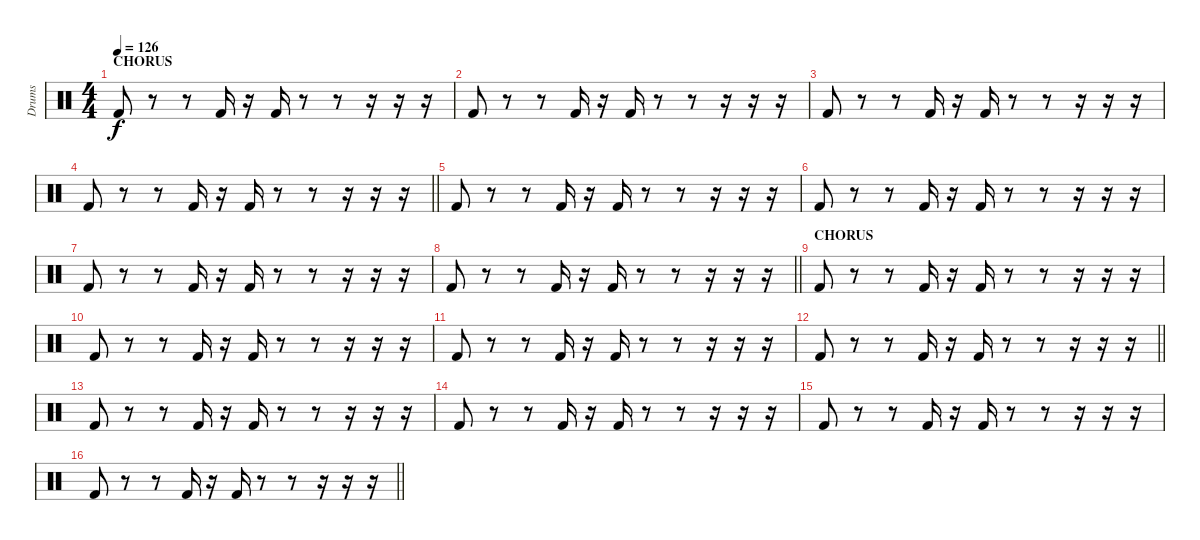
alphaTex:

\track ("Drums" "Drums") {instrument percussion}
\staff {score}
\articulation defaults
\ts (4 4)
\section ("" "CHORUS")
\tempo 126
\clef neutral
\ks c "Kick (hit) 2".8{dy f}
r.8 r.8 "Kick (hit) 2".16 r.16 "Kick (hit) 2".16 r.8 r.8 r.16 r.16 r.16 |
"Kick (hit) 2".8 r.8 r.8 "Kick (hit) 2".16 r.16 "Kick (hit) 2".16 r.8 r.8 r.16 r.16 r.16 |
"Kick (hit) 2".8 r.8 r.8 "Kick (hit) 2".16 r.16 "Kick (hit) 2".16 r.8 r.8 r.16 r.16 r.16 |
\barLineRight lightlight "Kick (hit) 2".8
r.8 r.8 "Kick (hit) 2".16 r.16 "Kick (hit) 2".16 r.8 r.8 r.16 r.16 r.16 |
"Kick (hit) 2".8 r.8 r.8 "Kick (hit) 2".16 r.16 "Kick (hit) 2".16 r.8 r.8 r.16 r.16 r.16 |
"Kick (hit) 2".8 r.8 r.8 "Kick (hit) 2".16 r.16 "Kick (hit) 2".16 r.8 r.8 r.16 r.16 r.16 |
"Kick (hit) 2".8 r.8 r.8 "Kick (hit) 2".16 r.16 "Kick (hit) 2".16 r.8 r.8 r.16 r.16 r.16 |
\barLineRight lightlight "Kick (hit) 2".8
r.8 r.8 "Kick (hit) 2".16 r.16 "Kick (hit) 2".16 r.8 r.8 r.16 r.16 r.16 |
\section ("" "CHORUS")
"Kick (hit) 2".8 r.8 r.8 "Kick (hit) 2".16 r.16 "Kick (hit) 2".16 r.8 r.8 r.16 r.16 r.16 |
"Kick (hit) 2".8 r.8 r.8 "Kick (hit) 2".16 r.16 "Kick (hit) 2".16 r.8 r.8 r.16 r.16 r.16 |
"Kick (hit) 2".8 r.8 r.8 "Kick (hit) 2".16 r.16 "Kick (hit) 2".16 r.8 r.8 r.16 r.16 r.16 |
\barLineRight lightlight "Kick (hit) 2".8
r.8 r.8 "Kick (hit) 2".16 r.16 "Kick (hit) 2".16 r.8 r.8 r.16 r.16 r.16 |
"Kick (hit) 2".8 r.8 r.8 "Kick (hit) 2".16 r.16 "Kick (hit) 2".16 r.8 r.8 r.16 r.16 r.16 |
"Kick (hit) 2".8 r.8 r.8 "Kick (hit) 2".16 r.16 "Kick (hit) 2".16 r.8 r.8 r.16 r.16 r.16 |
"Kick (hit) 2".8 r.8 r.8 "Kick (hit) 2".16 r.16 "Kick (hit) 2".16 r.8 r.8 r.16 r.16 r.16 |
\barLineRight lightlight "Kick (hit) 2".8
r.8 r.8 "Kick (hit) 2".16 r.16 "Kick (hit) 2".16 r.8 r.8 r.16 r.16 r.16
